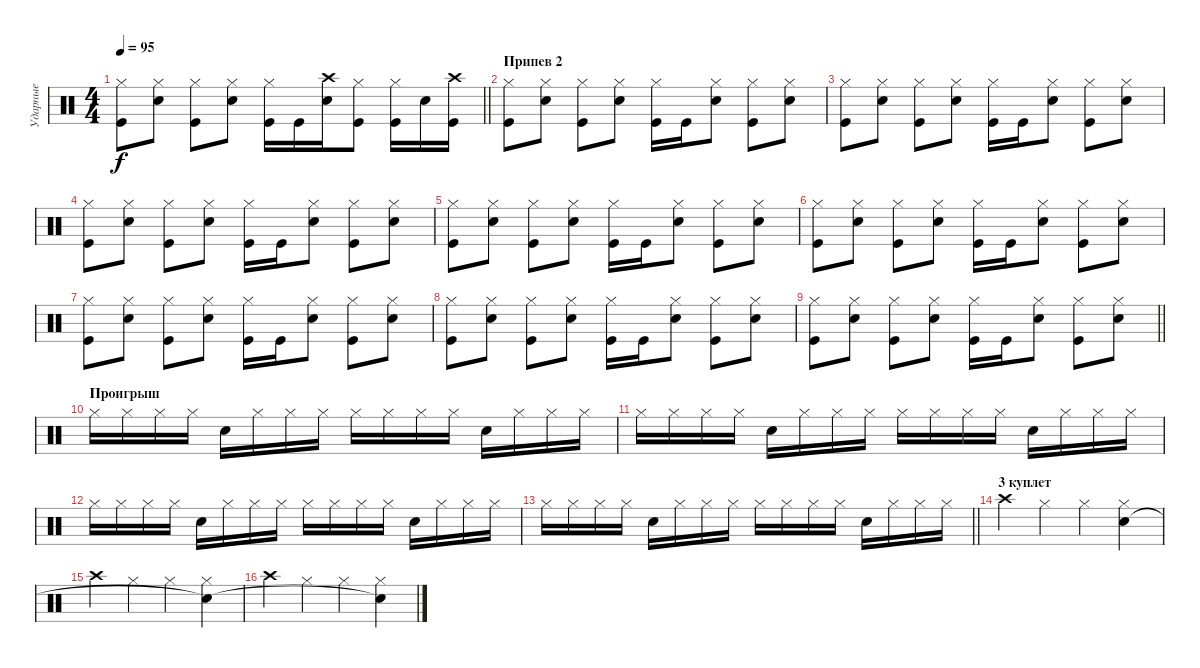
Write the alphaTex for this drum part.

\track ("Ударные" "Ударные") {instrument percussion}
\staff {score}
\articulation defaults
\ts (4 4)
\tempo 95
\clef neutral
\barLineRight lightlight
\ks c
("Hi-Hat (closed)" "Kick (hit)").8{dy f} ("Hi-Hat (closed)" "Snare (hit) 2").8 ("Hi-Hat (closed)" "Kick (hit)").8 ("Hi-Hat (closed)" "Snare (hit) 2").8 ("Hi-Hat (closed)" "Kick (hit)").16 "Kick (hit)".16 ("Crash high (hit)" "Snare (hit) 2").16 ("Hi-Hat (closed)" "Kick (hit)").8 ("Hi-Hat (closed)" "Kick (hit)").16 "Snare (hit) 2".16 ("Crash high (hit)" "Kick (hit)").16 |
\section ("" "Припев 2")
("Hi-Hat (closed)" "Kick (hit)").8 ("Hi-Hat (closed)" "Snare (hit) 2").8 ("Hi-Hat (closed)" "Kick (hit)").8 ("Hi-Hat (closed)" "Snare (hit) 2").8 ("Hi-Hat (closed)" "Kick (hit)").16 "Kick (hit)".16 ("Hi-Hat (closed)" "Snare (hit) 2").8 ("Hi-Hat (closed)" "Kick (hit)").8 ("Hi-Hat (closed)" "Snare (hit) 2").8 |
("Hi-Hat (closed)" "Kick (hit)").8 ("Hi-Hat (closed)" "Snare (hit) 2").8 ("Hi-Hat (closed)" "Kick (hit)").8 ("Hi-Hat (closed)" "Snare (hit) 2").8 ("Hi-Hat (closed)" "Kick (hit)").16 "Kick (hit)".16 ("Hi-Hat (closed)" "Snare (hit) 2").8 ("Hi-Hat (closed)" "Kick (hit)").8 ("Hi-Hat (closed)" "Snare (hit) 2").8 |
("Hi-Hat (closed)" "Kick (hit)").8 ("Hi-Hat (closed)" "Snare (hit) 2").8 ("Hi-Hat (closed)" "Kick (hit)").8 ("Hi-Hat (closed)" "Snare (hit) 2").8 ("Hi-Hat (closed)" "Kick (hit)").16 "Kick (hit)".16 ("Hi-Hat (closed)" "Snare (hit) 2").8 ("Hi-Hat (closed)" "Kick (hit)").8 ("Hi-Hat (closed)" "Snare (hit) 2").8 |
("Hi-Hat (closed)" "Kick (hit)").8 ("Hi-Hat (closed)" "Snare (hit) 2").8 ("Hi-Hat (closed)" "Kick (hit)").8 ("Hi-Hat (closed)" "Snare (hit) 2").8 ("Hi-Hat (closed)" "Kick (hit)").16 "Kick (hit)".16 ("Hi-Hat (closed)" "Snare (hit) 2").8 ("Hi-Hat (closed)" "Kick (hit)").8 ("Hi-Hat (closed)" "Snare (hit) 2").8 |
("Hi-Hat (closed)" "Kick (hit)").8 ("Hi-Hat (closed)" "Snare (hit) 2").8 ("Hi-Hat (closed)" "Kick (hit)").8 ("Hi-Hat (closed)" "Snare (hit) 2").8 ("Hi-Hat (closed)" "Kick (hit)").16 "Kick (hit)".16 ("Hi-Hat (closed)" "Snare (hit) 2").8 ("Hi-Hat (closed)" "Kick (hit)").8 ("Hi-Hat (closed)" "Snare (hit) 2").8 |
("Hi-Hat (closed)" "Kick (hit)").8 ("Hi-Hat (closed)" "Snare (hit) 2").8 ("Hi-Hat (closed)" "Kick (hit)").8 ("Hi-Hat (closed)" "Snare (hit) 2").8 ("Hi-Hat (closed)" "Kick (hit)").16 "Kick (hit)".16 ("Hi-Hat (closed)" "Snare (hit) 2").8 ("Hi-Hat (closed)" "Kick (hit)").8 ("Hi-Hat (closed)" "Snare (hit) 2").8 |
("Hi-Hat (closed)" "Kick (hit)").8 ("Hi-Hat (closed)" "Snare (hit) 2").8 ("Hi-Hat (closed)" "Kick (hit)").8 ("Hi-Hat (closed)" "Snare (hit) 2").8 ("Hi-Hat (closed)" "Kick (hit)").16 "Kick (hit)".16 ("Hi-Hat (closed)" "Snare (hit) 2").8 ("Hi-Hat (closed)" "Kick (hit)").8 ("Hi-Hat (closed)" "Snare (hit) 2").8 |
\barLineRight lightlight
("Hi-Hat (closed)" "Kick (hit)").8 ("Hi-Hat (closed)" "Snare (hit) 2").8 ("Hi-Hat (closed)" "Kick (hit)").8 ("Hi-Hat (closed)" "Snare (hit) 2").8 ("Hi-Hat (closed)" "Kick (hit)").16 "Kick (hit)".16 ("Hi-Hat (closed)" "Snare (hit) 2").8 ("Hi-Hat (closed)" "Kick (hit)").8 ("Hi-Hat (closed)" "Snare (hit) 2").8 |
\section ("" "Проигрыш")
"Hi-Hat (closed)".16 "Hi-Hat (closed)".16 "Hi-Hat (closed)".16 "Hi-Hat (closed)".16 "Snare (hit) 2".16 "Hi-Hat (closed)".16 "Hi-Hat (closed)".16 "Hi-Hat (closed)".16 "Hi-Hat (closed)".16 "Hi-Hat (closed)".16 "Hi-Hat (closed)".16 "Hi-Hat (closed)".16 "Snare (hit) 2".16 "Hi-Hat (closed)".16 "Hi-Hat (closed)".16 "Hi-Hat (closed)".16 |
"Hi-Hat (closed)".16 "Hi-Hat (closed)".16 "Hi-Hat (closed)".16 "Hi-Hat (closed)".16 "Snare (hit) 2".16 "Hi-Hat (closed)".16 "Hi-Hat (closed)".16 "Hi-Hat (closed)".16 "Hi-Hat (closed)".16 "Hi-Hat (closed)".16 "Hi-Hat (closed)".16 "Hi-Hat (closed)".16 "Snare (hit) 2".16 "Hi-Hat (closed)".16 "Hi-Hat (closed)".16 "Hi-Hat (closed)".16 |
"Hi-Hat (closed)".16 "Hi-Hat (closed)".16 "Hi-Hat (closed)".16 "Hi-Hat (closed)".16 "Snare (hit) 2".16 "Hi-Hat (closed)".16 "Hi-Hat (closed)".16 "Hi-Hat (closed)".16 "Hi-Hat (closed)".16 "Hi-Hat (closed)".16 "Hi-Hat (closed)".16 "Hi-Hat (closed)".16 "Snare (hit) 2".16 "Hi-Hat (closed)".16 "Hi-Hat (closed)".16 "Hi-Hat (closed)".16 |
\barLineRight lightlight "Hi-Hat (closed)".16 "Hi-Hat (closed)".16 "Hi-Hat (closed)".16 "Hi-Hat (closed)".16 "Snare (hit) 2".16 "Hi-Hat (closed)".16 "Hi-Hat (closed)".16 "Hi-Hat (closed)".16 "Hi-Hat (closed)".16 "Hi-Hat (closed)".16 "Hi-Hat (closed)".16 "Hi-Hat (closed)".16 "Snare (hit) 2".16 "Hi-Hat (closed)".16 "Hi-Hat (closed)".16 "Hi-Hat (closed)".16
|
\section ("" "3 куплет")
"Crash high (hit)".4 "Hi-Hat (closed)".4 "Hi-Hat (closed)".4 ("Hi-Hat (closed)" "Snare (hit)").4 |
"Crash high (hit)".4 "Hi-Hat (closed)".4 "Hi-Hat (closed)".4 ("Hi-Hat (closed)" "Snare (hit)"{t}).4 |
"Crash high (hit)".4 "Hi-Hat (closed)".4 "Hi-Hat (closed)".4 ("Hi-Hat (closed)" "Snare (hit)"{t}).4
